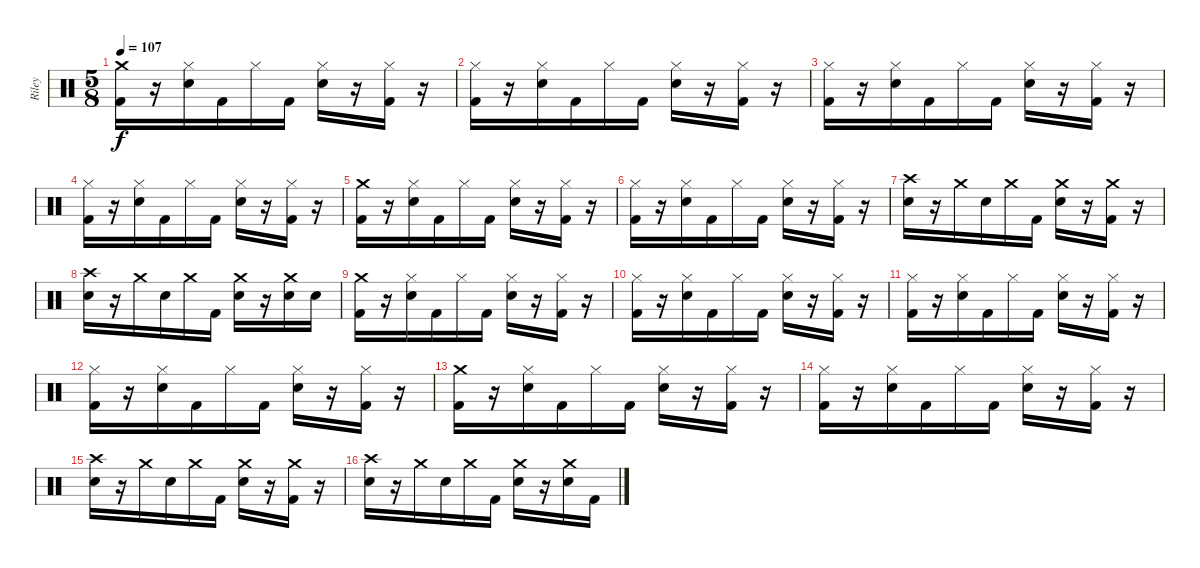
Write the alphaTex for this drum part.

\track ("Riley" "Riley") {instrument percussion}
\staff {score}
\articulation defaults
\ts (5 8)
\tempo 107
\clef neutral
\ks c
("Crash medium (hit)" "Kick (hit) 2").16{dy f} r.16 ("Hi-Hat (closed)" "Electric Snare (hit)").16 "Kick (hit) 2".16 "Hi-Hat (closed)".16 "Kick (hit) 2".16 ("Hi-Hat (closed)" "Electric Snare (hit)").16 r.16 ("Hi-Hat (closed)" "Kick (hit) 2").16 r.16 |
("Hi-Hat (closed)" "Kick (hit) 2").16 r.16 ("Hi-Hat (closed)" "Electric Snare (hit)").16 "Kick (hit) 2".16 "Hi-Hat (closed)".16 "Kick (hit) 2".16 ("Hi-Hat (closed)" "Electric Snare (hit)").16 r.16 ("Hi-Hat (closed)" "Kick (hit) 2").16 r.16 |
("Hi-Hat (closed)" "Kick (hit) 2").16 r.16 ("Hi-Hat (closed)" "Electric Snare (hit)").16 "Kick (hit) 2".16 "Hi-Hat (closed)".16 "Kick (hit) 2".16 ("Hi-Hat (closed)" "Electric Snare (hit)").16 r.16 ("Hi-Hat (closed)" "Kick (hit) 2").16 r.16 |
("Hi-Hat (closed)" "Kick (hit) 2").16 r.16 ("Hi-Hat (closed)" "Electric Snare (hit)").16 "Kick (hit) 2".16 "Hi-Hat (closed)".16 "Kick (hit) 2".16 ("Hi-Hat (closed)" "Electric Snare (hit)").16 r.16 ("Hi-Hat (closed)" "Kick (hit) 2").16 r.16 |
("Crash medium (hit)" "Kick (hit) 2").16 r.16 ("Hi-Hat (closed)" "Electric Snare (hit)").16 "Kick (hit) 2".16 "Hi-Hat (closed)".16 "Kick (hit) 2".16 ("Hi-Hat (closed)" "Electric Snare (hit)").16 r.16 ("Hi-Hat (closed)" "Kick (hit) 2").16 r.16 |
("Hi-Hat (closed)" "Kick (hit) 2").16 r.16 ("Hi-Hat (closed)" "Electric Snare (hit)").16 "Kick (hit) 2".16 "Hi-Hat (closed)".16 "Kick (hit) 2".16 ("Hi-Hat (closed)" "Electric Snare (hit)").16 r.16 ("Hi-Hat (closed)" "Kick (hit) 2").16 r.16 |
("Crash high (hit)" "Electric Snare (hit)").16 r.16 "Crash medium (hit)".16 "Electric Snare (hit)".16 "Crash medium (hit)".16 "Kick (hit) 2".16 ("Crash medium (hit)" "Electric Snare (hit)").16 r.16 ("Crash medium (hit)" "Kick (hit) 2").16 r.16 |
("Crash high (hit)" "Electric Snare (hit)").16 r.16 "Crash medium (hit)".16 "Electric Snare (hit)".16 "Crash medium (hit)".16 "Kick (hit) 2".16 ("Crash medium (hit)" "Electric Snare (hit)").16 r.16 ("Crash medium (hit)" "Electric Snare (hit)").16 "Electric Snare (hit)".16 |
("Crash medium (hit)" "Kick (hit) 2").16 r.16 ("Hi-Hat (closed)" "Electric Snare (hit)").16 "Kick (hit) 2".16 "Hi-Hat (closed)".16 "Kick (hit) 2".16 ("Hi-Hat (closed)" "Electric Snare (hit)").16 r.16 ("Hi-Hat (closed)" "Kick (hit) 2").16 r.16 |
("Hi-Hat (closed)" "Kick (hit) 2").16 r.16 ("Hi-Hat (closed)" "Electric Snare (hit)").16 "Kick (hit) 2".16 "Hi-Hat (closed)".16 "Kick (hit) 2".16 ("Hi-Hat (closed)" "Electric Snare (hit)").16 r.16 ("Hi-Hat (closed)" "Kick (hit) 2").16 r.16 |
("Hi-Hat (closed)" "Kick (hit) 2").16 r.16 ("Hi-Hat (closed)" "Electric Snare (hit)").16 "Kick (hit) 2".16 "Hi-Hat (closed)".16 "Kick (hit) 2".16 ("Hi-Hat (closed)" "Electric Snare (hit)").16 r.16 ("Hi-Hat (closed)" "Kick (hit) 2").16 r.16 |
("Hi-Hat (closed)" "Kick (hit) 2").16 r.16 ("Hi-Hat (closed)" "Electric Snare (hit)").16 "Kick (hit) 2".16 "Hi-Hat (closed)".16 "Kick (hit) 2".16 ("Hi-Hat (closed)" "Electric Snare (hit)").16 r.16 ("Hi-Hat (closed)" "Kick (hit) 2").16 r.16 |
("Crash medium (hit)" "Kick (hit) 2").16 r.16 ("Hi-Hat (closed)" "Electric Snare (hit)").16 "Kick (hit) 2".16 "Hi-Hat (closed)".16 "Kick (hit) 2".16 ("Hi-Hat (closed)" "Electric Snare (hit)").16 r.16 ("Hi-Hat (closed)" "Kick (hit) 2").16 r.16 |
("Hi-Hat (closed)" "Kick (hit) 2").16 r.16 ("Hi-Hat (closed)" "Electric Snare (hit)").16 "Kick (hit) 2".16 "Hi-Hat (closed)".16 "Kick (hit) 2".16 ("Hi-Hat (closed)" "Electric Snare (hit)").16 r.16 ("Hi-Hat (closed)" "Kick (hit) 2").16 r.16 |
("Crash high (hit)" "Electric Snare (hit)").16 r.16 "Crash medium (hit)".16 "Electric Snare (hit)".16 "Crash medium (hit)".16 "Kick (hit) 2".16 ("Crash medium (hit)" "Electric Snare (hit)").16 r.16 ("Crash medium (hit)" "Kick (hit) 2").16 r.16 |
("Crash high (hit)" "Electric Snare (hit)").16 r.16 "Crash medium (hit)".16 "Electric Snare (hit)".16 "Crash medium (hit)".16 "Kick (hit) 2".16 ("Crash medium (hit)" "Electric Snare (hit)").16 r.16 ("Crash medium (hit)" "Electric Snare (hit)").16 "Kick (hit) 2".16
